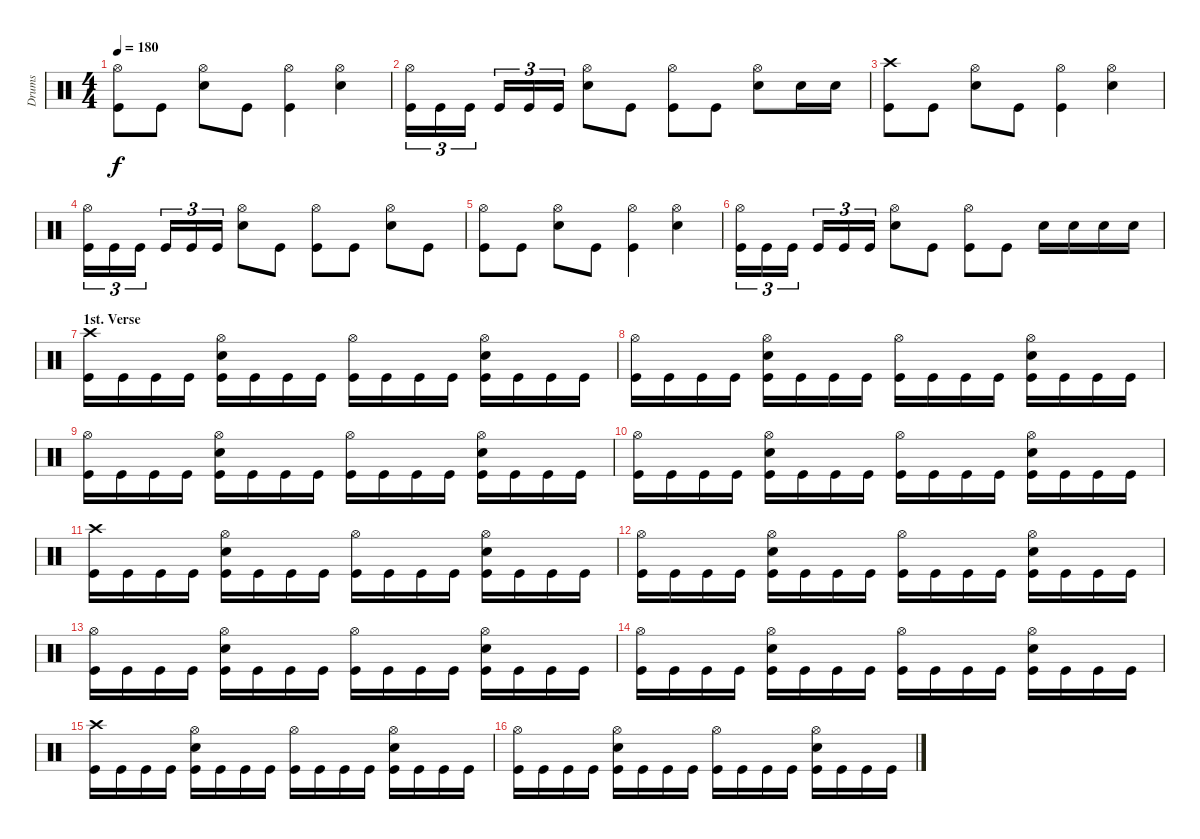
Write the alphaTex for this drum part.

\track ("Drums" "Drums") {instrument percussion}
\staff {score}
\articulation defaults
\ts (4 4)
\tempo 180
\clef neutral
\ks c
("Hi-Hat (open)" "Kick (hit)").8{dy f} "Kick (hit)".8 ("Hi-Hat (open)" "Electric Snare (hit)").8 "Kick (hit)".8 ("Hi-Hat (open)" "Kick (hit)").4 ("Hi-Hat (open)" "Electric Snare (hit)").4 |
("Hi-Hat (open)" "Kick (hit)").16{tu (3 2)} "Kick (hit)".16{tu (3 2)} "Kick (hit)".16{tu (3 2)} "Kick (hit)".16{tu (3 2)} "Kick (hit)".16{tu (3 2)} "Kick (hit)".16{tu (3 2)} ("Hi-Hat (open)" "Electric Snare (hit)").8 "Kick (hit)".8 ("Hi-Hat (open)" "Kick (hit)").8 "Kick (hit)".8 ("Hi-Hat (open)" "Electric Snare (hit)").8 "Electric Snare (hit)".16 "Electric Snare (hit)".16 |
("Crash high (hit)" "Kick (hit)").8 "Kick (hit)".8 ("Hi-Hat (open)" "Electric Snare (hit)").8 "Kick (hit)".8 ("Hi-Hat (open)" "Kick (hit)").4 ("Hi-Hat (open)" "Electric Snare (hit)").4 |
("Hi-Hat (open)" "Kick (hit)").16{tu (3 2)} "Kick (hit)".16{tu (3 2)} "Kick (hit)".16{tu (3 2)} "Kick (hit)".16{tu (3 2)} "Kick (hit)".16{tu (3 2)} "Kick (hit)".16{tu (3 2)} ("Hi-Hat (open)" "Electric Snare (hit)").8 "Kick (hit)".8 ("Hi-Hat (open)" "Kick (hit)").8 "Kick (hit)".8 ("Hi-Hat (open)" "Electric Snare (hit)").8 "Kick (hit)".8 |
("Hi-Hat (open)" "Kick (hit)").8 "Kick (hit)".8 ("Hi-Hat (open)" "Electric Snare (hit)").8 "Kick (hit)".8 ("Hi-Hat (open)" "Kick (hit)").4 ("Hi-Hat (open)" "Electric Snare (hit)").4 |
("Hi-Hat (open)" "Kick (hit)").16{tu (3 2)} "Kick (hit)".16{tu (3 2)} "Kick (hit)".16{tu (3 2)} "Kick (hit)".16{tu (3 2)} "Kick (hit)".16{tu (3 2)} "Kick (hit)".16{tu (3 2)} ("Hi-Hat (open)" "Electric Snare (hit)").8 "Kick (hit)".8 ("Hi-Hat (open)" "Kick (hit)").8 "Kick (hit)".8 "Electric Snare (hit)".16 "Electric Snare (hit)".16 "Electric Snare (hit)".16 "Electric Snare (hit)".16 |
\section ("" "1st. Verse")
("Crash high (hit)" "Kick (hit)").16 "Kick (hit)".16 "Kick (hit)".16 "Kick (hit)".16 ("Hi-Hat (open)" "Electric Snare (hit)" "Kick (hit)").16 "Kick (hit)".16 "Kick (hit)".16 "Kick (hit)".16 ("Hi-Hat (open)" "Kick (hit)").16 "Kick (hit)".16 "Kick (hit)".16 "Kick (hit)".16 ("Hi-Hat (open)" "Electric Snare (hit)" "Kick (hit)").16 "Kick (hit)".16 "Kick (hit)".16 "Kick (hit)".16 |
("Hi-Hat (open)" "Kick (hit)").16 "Kick (hit)".16 "Kick (hit)".16 "Kick (hit)".16 ("Hi-Hat (open)" "Electric Snare (hit)" "Kick (hit)").16 "Kick (hit)".16 "Kick (hit)".16 "Kick (hit)".16 ("Hi-Hat (open)" "Kick (hit)").16 "Kick (hit)".16 "Kick (hit)".16 "Kick (hit)".16 ("Hi-Hat (open)" "Electric Snare (hit)" "Kick (hit)").16 "Kick (hit)".16 "Kick (hit)".16 "Kick (hit)".16 |
("Hi-Hat (open)" "Kick (hit)").16 "Kick (hit)".16 "Kick (hit)".16 "Kick (hit)".16 ("Hi-Hat (open)" "Electric Snare (hit)" "Kick (hit)").16 "Kick (hit)".16 "Kick (hit)".16 "Kick (hit)".16 ("Hi-Hat (open)" "Kick (hit)").16 "Kick (hit)".16 "Kick (hit)".16 "Kick (hit)".16 ("Hi-Hat (open)" "Electric Snare (hit)" "Kick (hit)").16 "Kick (hit)".16 "Kick (hit)".16 "Kick (hit)".16 |
("Hi-Hat (open)" "Kick (hit)").16 "Kick (hit)".16 "Kick (hit)".16 "Kick (hit)".16 ("Hi-Hat (open)" "Electric Snare (hit)" "Kick (hit)").16 "Kick (hit)".16 "Kick (hit)".16 "Kick (hit)".16 ("Hi-Hat (open)" "Kick (hit)").16 "Kick (hit)".16 "Kick (hit)".16 "Kick (hit)".16 ("Hi-Hat (open)" "Electric Snare (hit)" "Kick (hit)").16 "Kick (hit)".16 "Kick (hit)".16 "Kick (hit)".16 |
("Crash high (hit)" "Kick (hit)").16 "Kick (hit)".16 "Kick (hit)".16 "Kick (hit)".16 ("Hi-Hat (open)" "Electric Snare (hit)" "Kick (hit)").16 "Kick (hit)".16 "Kick (hit)".16 "Kick (hit)".16 ("Hi-Hat (open)" "Kick (hit)").16 "Kick (hit)".16 "Kick (hit)".16 "Kick (hit)".16 ("Hi-Hat (open)" "Electric Snare (hit)" "Kick (hit)").16 "Kick (hit)".16 "Kick (hit)".16 "Kick (hit)".16 |
("Hi-Hat (open)" "Kick (hit)").16 "Kick (hit)".16 "Kick (hit)".16 "Kick (hit)".16 ("Hi-Hat (open)" "Electric Snare (hit)" "Kick (hit)").16 "Kick (hit)".16 "Kick (hit)".16 "Kick (hit)".16 ("Hi-Hat (open)" "Kick (hit)").16 "Kick (hit)".16 "Kick (hit)".16 "Kick (hit)".16 ("Hi-Hat (open)" "Electric Snare (hit)" "Kick (hit)").16 "Kick (hit)".16 "Kick (hit)".16 "Kick (hit)".16 |
("Hi-Hat (open)" "Kick (hit)").16 "Kick (hit)".16 "Kick (hit)".16 "Kick (hit)".16 ("Hi-Hat (open)" "Electric Snare (hit)" "Kick (hit)").16 "Kick (hit)".16 "Kick (hit)".16 "Kick (hit)".16 ("Hi-Hat (open)" "Kick (hit)").16 "Kick (hit)".16 "Kick (hit)".16 "Kick (hit)".16 ("Hi-Hat (open)" "Electric Snare (hit)" "Kick (hit)").16 "Kick (hit)".16 "Kick (hit)".16 "Kick (hit)".16 |
("Hi-Hat (open)" "Kick (hit)").16 "Kick (hit)".16 "Kick (hit)".16 "Kick (hit)".16 ("Hi-Hat (open)" "Electric Snare (hit)" "Kick (hit)").16 "Kick (hit)".16 "Kick (hit)".16 "Kick (hit)".16 ("Hi-Hat (open)" "Kick (hit)").16 "Kick (hit)".16 "Kick (hit)".16 "Kick (hit)".16 ("Hi-Hat (open)" "Electric Snare (hit)" "Kick (hit)").16 "Kick (hit)".16 "Kick (hit)".16 "Kick (hit)".16 |
("Crash high (hit)" "Kick (hit)").16 "Kick (hit)".16 "Kick (hit)".16 "Kick (hit)".16 ("Hi-Hat (open)" "Electric Snare (hit)" "Kick (hit)").16 "Kick (hit)".16 "Kick (hit)".16 "Kick (hit)".16 ("Hi-Hat (open)" "Kick (hit)").16 "Kick (hit)".16 "Kick (hit)".16 "Kick (hit)".16 ("Hi-Hat (open)" "Electric Snare (hit)" "Kick (hit)").16 "Kick (hit)".16 "Kick (hit)".16 "Kick (hit)".16 |
("Hi-Hat (open)" "Kick (hit)").16 "Kick (hit)".16 "Kick (hit)".16 "Kick (hit)".16 ("Hi-Hat (open)" "Electric Snare (hit)" "Kick (hit)").16 "Kick (hit)".16 "Kick (hit)".16 "Kick (hit)".16 ("Hi-Hat (open)" "Kick (hit)").16 "Kick (hit)".16 "Kick (hit)".16 "Kick (hit)".16 ("Hi-Hat (open)" "Electric Snare (hit)" "Kick (hit)").16 "Kick (hit)".16 "Kick (hit)".16 "Kick (hit)".16
